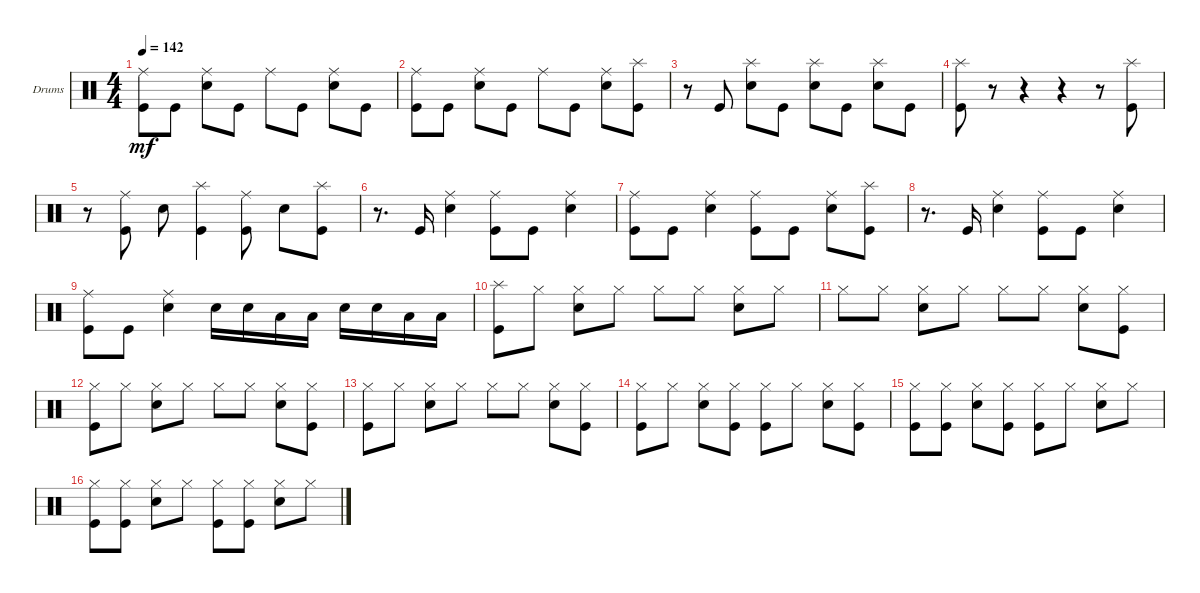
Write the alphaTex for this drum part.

\defaultSystemsLayout 4
\bracketExtendMode groupsimilarinstruments
\firstSystemTrackNameOrientation horizontal
\otherSystemsTrackNameOrientation horizontal
\track ("Drums" "Drums") {instrument percussion}
\staff {score}
\articulation defaults
\ts (4 4)
\tempo 142
\clef neutral
\ks c
("Ride (middle)" "Kick (hit)").8{dy mf} "Kick (hit)".8 ("Snare (hit) 2" "Ride (middle)").8 "Kick (hit)".8 "Ride (middle)".8 "Kick (hit)".8 ("Snare (hit) 2" "Ride (middle)").8 "Kick (hit)".8 |
("Ride (middle)" "Kick (hit)").8 "Kick (hit)".8 ("Snare (hit) 2" "Ride (middle)").8 "Kick (hit)".8 "Ride (middle)".8 "Kick (hit)".8 ("Snare (hit) 2" "Ride (middle)").8 ("Kick (hit)" "Splash (hit)").8 |
r.8 "Kick (hit)".8 ("Snare (hit) 2" "Splash (hit)").8 "Kick (hit)".8 ("Snare (hit) 2" "Splash (hit)").8 "Kick (hit)".8 ("Snare (hit) 2" "Splash (hit)").8 "Kick (hit)".8 |
("Splash (hit)" "Kick (hit)").8 r.8 r.4 r.4 r.8 ("Splash (hit)" "Kick (hit)").8 |
r.8 ("Kick (hit)" "Ride (middle)").8 "Snare (hit) 2".8 ("Kick (hit)" "Splash (hit)").4 ("Kick (hit)" "Ride (middle)").8 "Snare (hit) 2".8 ("Kick (hit)" "Splash (hit)").8 |
r.8{d} "Kick (hit)".16 ("Snare (hit) 2" "Ride (middle)").4 ("Kick (hit)" "Ride (middle)").8 "Kick (hit)".8 ("Snare (hit) 2" "Ride (middle)").4 |
("Kick (hit)" "Ride (middle)").8 "Kick (hit)".8 ("Snare (hit) 2" "Ride (middle)").4 ("Kick (hit)" "Ride (middle)").8 "Kick (hit)".8 ("Snare (hit) 2" "Ride (middle)").8 ("Kick (hit)" "Splash (hit)").8 |
r.8{d} "Kick (hit)".16 ("Snare (hit) 2" "Ride (middle)").4 ("Kick (hit)" "Ride (middle)").8 "Kick (hit)".8 ("Snare (hit) 2" "Ride (middle)").4 |
("Kick (hit)" "Ride (middle)").8 "Kick (hit)".8 ("Snare (hit) 2" "Ride (middle)").4 "Snare (hit) 2".16 "Snare (hit) 2".16 "Low Tom (hit)".16 "Low Tom (hit)".16 "Snare (hit) 2".16 "Snare (hit) 2".16 "Low Tom (hit)".16 "Low Tom (hit)".16 |
("Kick (hit)" "Splash (hit)").8 "Hi-Hat (closed)".8 ("Hi-Hat (closed)" "Snare (hit) 2").8 "Hi-Hat (closed)".8 "Hi-Hat (closed)".8 "Hi-Hat (closed)".8 ("Hi-Hat (closed)" "Snare (hit) 2").8 "Hi-Hat (closed)".8 |
"Hi-Hat (closed)".8 "Hi-Hat (closed)".8 ("Hi-Hat (closed)" "Snare (hit) 2").8 "Hi-Hat (closed)".8 "Hi-Hat (closed)".8 "Hi-Hat (closed)".8 ("Hi-Hat (closed)" "Snare (hit) 2").8 ("Hi-Hat (closed)" "Kick (hit)").8 |
("Hi-Hat (closed)" "Kick (hit)").8 "Hi-Hat (closed)".8 ("Hi-Hat (closed)" "Snare (hit) 2").8 "Hi-Hat (closed)".8 "Hi-Hat (closed)".8 "Hi-Hat (closed)".8 ("Hi-Hat (closed)" "Snare (hit) 2").8 ("Hi-Hat (closed)" "Kick (hit)").8 |
("Hi-Hat (closed)" "Kick (hit)").8 "Hi-Hat (closed)".8 ("Hi-Hat (closed)" "Snare (hit) 2").8 "Hi-Hat (closed)".8 "Hi-Hat (closed)".8 "Hi-Hat (closed)".8 ("Hi-Hat (closed)" "Snare (hit) 2").8 ("Hi-Hat (closed)" "Kick (hit)").8 |
("Kick (hit)" "Hi-Hat (closed)").8 "Hi-Hat (closed)".8 ("Snare (hit) 2" "Hi-Hat (closed)").8 ("Hi-Hat (closed)" "Kick (hit)").8 ("Hi-Hat (closed)" "Kick (hit)").8 "Hi-Hat (closed)".8 ("Snare (hit) 2" "Hi-Hat (closed)").8 ("Hi-Hat (closed)" "Kick (hit)").8 |
("Kick (hit)" "Hi-Hat (closed)").8 ("Kick (hit)" "Hi-Hat (closed)").8 ("Snare (hit) 2" "Hi-Hat (closed)").8 ("Hi-Hat (closed)" "Kick (hit)").8 ("Hi-Hat (closed)" "Kick (hit)").8 "Hi-Hat (closed)".8 ("Hi-Hat (closed)" "Snare (hit) 2").8 "Hi-Hat (closed)".8 |
("Kick (hit)" "Hi-Hat (closed)").8 ("Kick (hit)" "Hi-Hat (closed)").8 ("Snare (hit) 2" "Hi-Hat (closed)").8 "Hi-Hat (closed)".8 ("Kick (hit)" "Hi-Hat (closed)").8 ("Kick (hit)" "Hi-Hat (closed)").8 ("Snare (hit) 2" "Hi-Hat (closed)").8 "Hi-Hat (closed)".8
